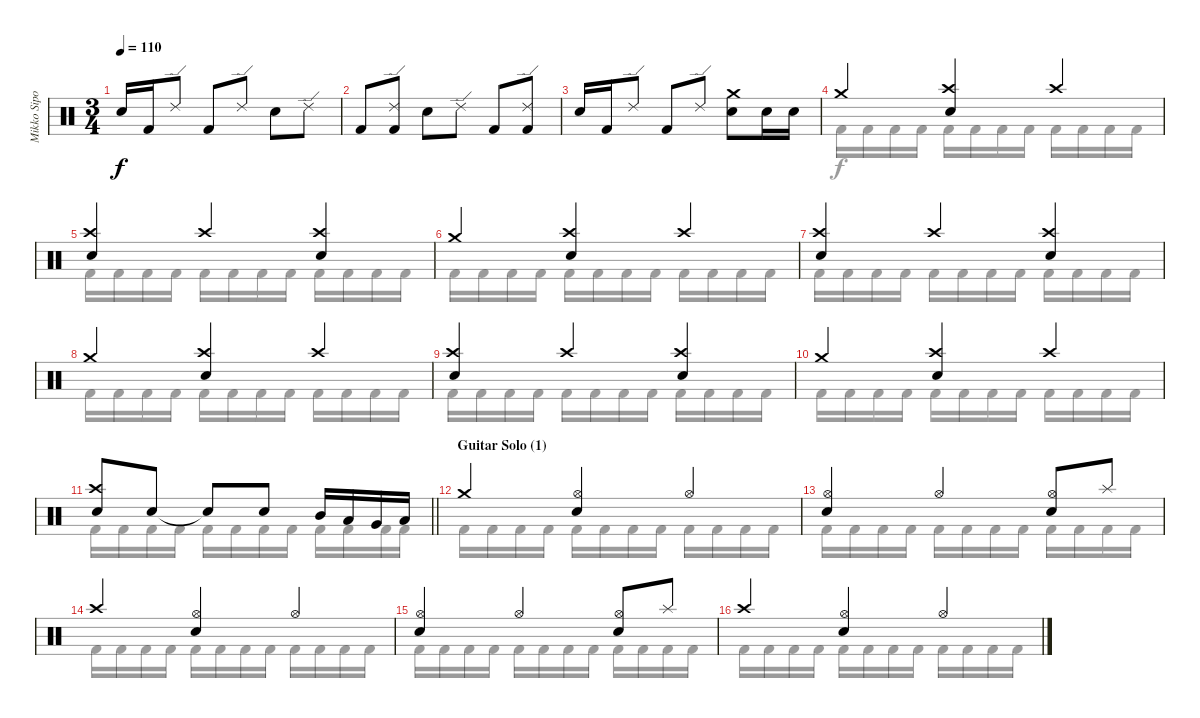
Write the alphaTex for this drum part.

\track ("Mikko Sipola (drums)" "Mikko Sipo") {instrument percussion}
\staff {score}
\articulation defaults
\voice
\ts (3 4)
\tempo 110
\clef neutral
\ks aminor "Electric Snare (hit)".16{dy f} "Kick (hit) 2".16 "Ride (edge) 2".8 "Kick (hit) 2".8 "Ride (edge) 2".8 "Electric Snare (hit)".8 "Ride (edge) 2".8
|
"Kick (hit) 2".8 ("Ride (edge) 2" "Kick (hit) 2").8 "Electric Snare (hit)".8 "Ride (edge) 2".8 "Kick (hit) 2".8 ("Ride (edge) 2" "Kick (hit) 2").8 |
"Electric Snare (hit)".16 "Kick (hit) 2".16 "Ride (edge) 2".8 "Kick (hit) 2".8 "Ride (edge) 2".8 ("Crash medium (hit)" "Electric Snare (hit)").8 "Electric Snare (hit)".16 "Electric Snare (hit)".16 |
"Crash medium (hit)".4 ("Crash high (hit)" "Electric Snare (hit)").4 "Crash high (hit)".4 |
("Crash high (hit)" "Electric Snare (hit)").4 "Crash high (hit)".4 ("Crash high (hit)" "Electric Snare (hit)").4 |
"Crash medium (hit)".4 ("Crash high (hit)" "Electric Snare (hit)").4 "Crash high (hit)".4 |
("Crash high (hit)" "Electric Snare (hit)").4 "Crash high (hit)".4 ("Crash high (hit)" "Electric Snare (hit)").4 |
"Crash medium (hit)".4 ("Crash high (hit)" "Electric Snare (hit)").4 "Crash high (hit)".4 |
("Crash high (hit)" "Electric Snare (hit)").4 "Crash high (hit)".4 ("Crash high (hit)" "Electric Snare (hit)").4 |
"Crash medium (hit)".4 ("Crash high (hit)" "Electric Snare (hit)").4 "Crash high (hit)".4 |
\barLineRight lightlight
("Crash high (hit)" "Electric Snare (hit)").8 "Electric Snare (hit)".8 "Electric Snare (hit)"{t}.8 "Electric Snare (hit)".8 "Mid Tom (hit)".16 "Low Tom (hit)".16 "Very Low Tom (hit)".16 "Low Floor Tom (hit)".16 |
\section ("" "Guitar Solo (1)")
"Crash medium (hit)".4 ("Hi-Hat (open)" "Electric Snare (hit)").4 "Hi-Hat (open)".4 |
("Hi-Hat (open)" "Electric Snare (hit)").4 "Hi-Hat (open)".4 ("Hi-Hat (open)" "Electric Snare (hit)").8 "Splash (hit)".8 |
"Crash high (hit)".4 ("Hi-Hat (open)" "Electric Snare (hit)").4 "Hi-Hat (open)".4 |
("Hi-Hat (open)" "Electric Snare (hit)").4 "Hi-Hat (open)".4 ("Hi-Hat (open)" "Electric Snare (hit)").8 "Splash (hit)".8 |
"Crash high (hit)".4 ("Hi-Hat (open)" "Electric Snare (hit)").4 "Hi-Hat (open)".4
\voice
\clef neutral
\ottava regular
\simile none
\ks aminor
|
|
|
"Kick (hit) 2".16 "Kick (hit) 2".16 "Kick (hit) 2".16 "Kick (hit) 2".16 "Kick (hit) 2".16 "Kick (hit) 2".16 "Kick (hit) 2".16 "Kick (hit) 2".16 "Kick (hit) 2".16 "Kick (hit) 2".16 "Kick (hit) 2".16 "Kick (hit) 2".16 |
"Kick (hit) 2".16 "Kick (hit) 2".16 "Kick (hit) 2".16 "Kick (hit) 2".16 "Kick (hit) 2".16 "Kick (hit) 2".16 "Kick (hit) 2".16 "Kick (hit) 2".16 "Kick (hit) 2".16 "Kick (hit) 2".16 "Kick (hit) 2".16 "Kick (hit) 2".16 |
"Kick (hit) 2".16 "Kick (hit) 2".16 "Kick (hit) 2".16 "Kick (hit) 2".16 "Kick (hit) 2".16 "Kick (hit) 2".16 "Kick (hit) 2".16 "Kick (hit) 2".16 "Kick (hit) 2".16 "Kick (hit) 2".16 "Kick (hit) 2".16 "Kick (hit) 2".16 |
"Kick (hit) 2".16 "Kick (hit) 2".16 "Kick (hit) 2".16 "Kick (hit) 2".16 "Kick (hit) 2".16 "Kick (hit) 2".16 "Kick (hit) 2".16 "Kick (hit) 2".16 "Kick (hit) 2".16 "Kick (hit) 2".16 "Kick (hit) 2".16 "Kick (hit) 2".16 |
"Kick (hit) 2".16 "Kick (hit) 2".16 "Kick (hit) 2".16 "Kick (hit) 2".16 "Kick (hit) 2".16 "Kick (hit) 2".16 "Kick (hit) 2".16 "Kick (hit) 2".16 "Kick (hit) 2".16 "Kick (hit) 2".16 "Kick (hit) 2".16 "Kick (hit) 2".16 |
"Kick (hit) 2".16 "Kick (hit) 2".16 "Kick (hit) 2".16 "Kick (hit) 2".16 "Kick (hit) 2".16 "Kick (hit) 2".16 "Kick (hit) 2".16 "Kick (hit) 2".16 "Kick (hit) 2".16 "Kick (hit) 2".16 "Kick (hit) 2".16 "Kick (hit) 2".16 |
"Kick (hit) 2".16 "Kick (hit) 2".16 "Kick (hit) 2".16 "Kick (hit) 2".16 "Kick (hit) 2".16 "Kick (hit) 2".16 "Kick (hit) 2".16 "Kick (hit) 2".16 "Kick (hit) 2".16 "Kick (hit) 2".16 "Kick (hit) 2".16 "Kick (hit) 2".16 |
\barLineRight lightlight "Kick (hit) 2".16 "Kick (hit) 2".16 "Kick (hit) 2".16 "Kick (hit) 2".16 "Kick (hit) 2".16 "Kick (hit) 2".16 "Kick (hit) 2".16 "Kick (hit) 2".16 "Kick (hit) 2".16 "Kick (hit) 2".16 "Kick (hit) 2".16 "Kick (hit) 2".16
|
"Kick (hit) 2".16 "Kick (hit) 2".16 "Kick (hit) 2".16 "Kick (hit) 2".16 "Kick (hit) 2".16 "Kick (hit) 2".16 "Kick (hit) 2".16 "Kick (hit) 2".16 "Kick (hit) 2".16 "Kick (hit) 2".16 "Kick (hit) 2".16 "Kick (hit) 2".16 |
"Kick (hit) 2".16 "Kick (hit) 2".16 "Kick (hit) 2".16 "Kick (hit) 2".16 "Kick (hit) 2".16 "Kick (hit) 2".16 "Kick (hit) 2".16 "Kick (hit) 2".16 "Kick (hit) 2".16 "Kick (hit) 2".16 "Kick (hit) 2".16 "Kick (hit) 2".16 |
"Kick (hit) 2".16 "Kick (hit) 2".16 "Kick (hit) 2".16 "Kick (hit) 2".16 "Kick (hit) 2".16 "Kick (hit) 2".16 "Kick (hit) 2".16 "Kick (hit) 2".16 "Kick (hit) 2".16 "Kick (hit) 2".16 "Kick (hit) 2".16 "Kick (hit) 2".16 |
"Kick (hit) 2".16 "Kick (hit) 2".16 "Kick (hit) 2".16 "Kick (hit) 2".16 "Kick (hit) 2".16 "Kick (hit) 2".16 "Kick (hit) 2".16 "Kick (hit) 2".16 "Kick (hit) 2".16 "Kick (hit) 2".16 "Kick (hit) 2".16 "Kick (hit) 2".16 |
"Kick (hit) 2".16 "Kick (hit) 2".16 "Kick (hit) 2".16 "Kick (hit) 2".16 "Kick (hit) 2".16 "Kick (hit) 2".16 "Kick (hit) 2".16 "Kick (hit) 2".16 "Kick (hit) 2".16 "Kick (hit) 2".16 "Kick (hit) 2".16 "Kick (hit) 2".16
